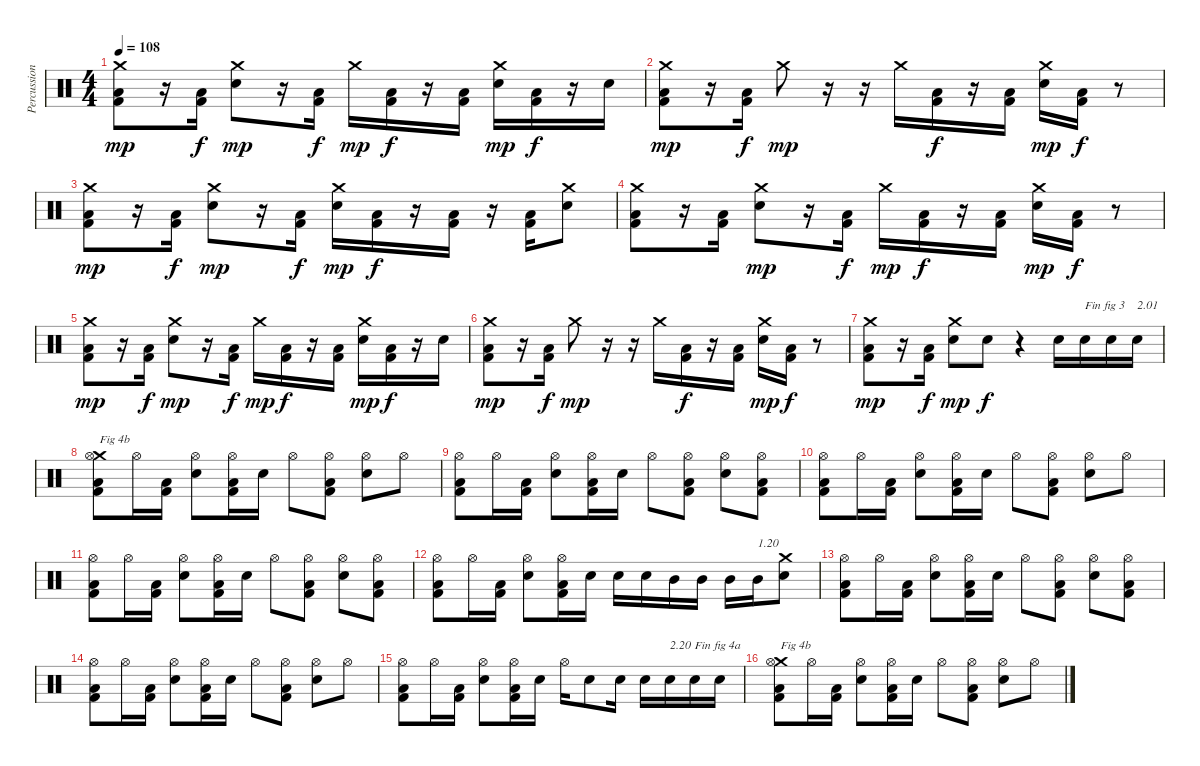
\track ("Percussions" "Percussion") {instrument percussion}
\staff {score}
\articulation defaults
\ts (4 4)
\tempo 108
\clef neutral
\ks c
("Kick (hit) 2" "Low Floor Tom (hit)" "Crash medium (hit)").8{dy mp} r.16 ("Kick (hit) 2" "Low Floor Tom (hit)").16{dy f} ("Snare (hit) 2" "Crash medium (hit)").8{dy mp} r.16 ("Kick (hit) 2" "Low Floor Tom (hit)").16{dy f} "Crash medium (hit)".16{dy mp} ("Kick (hit) 2" "Low Floor Tom (hit)").16{dy f} r.16 ("Kick (hit) 2" "Low Floor Tom (hit)").16 ("Snare (hit) 2" "Crash medium (hit)").16{dy mp} ("Kick (hit) 2" "Low Floor Tom (hit)").16{dy f} r.16 "Snare (hit) 2".16 |
("Kick (hit) 2" "Low Floor Tom (hit)" "Crash medium (hit)").8{dy mp} r.16 ("Kick (hit) 2" "Low Floor Tom (hit)").16{dy f} "Crash medium (hit)".8{dy mp} r.16 r.16 "Crash medium (hit)".16 ("Kick (hit) 2" "Low Floor Tom (hit)").16{dy f} r.16 ("Kick (hit) 2" "Low Floor Tom (hit)").16 ("Snare (hit) 2" "Crash medium (hit)").16{dy mp} ("Kick (hit) 2" "Low Floor Tom (hit)").16{dy f} r.8 |
("Kick (hit) 2" "Low Floor Tom (hit)" "Crash medium (hit)").8{dy mp} r.16 ("Kick (hit) 2" "Low Floor Tom (hit)").16{dy f} ("Snare (hit) 2" "Crash medium (hit)").8{dy mp} r.16 ("Kick (hit) 2" "Low Floor Tom (hit)").16{dy f} ("Snare (hit) 2" "Crash medium (hit)").16{dy mp} ("Kick (hit) 2" "Low Floor Tom (hit)").16{dy f} r.16 ("Kick (hit) 2" "Low Floor Tom (hit)").16 r.16 ("Kick (hit) 2" "Low Floor Tom (hit)").16 ("Snare (hit) 2" "Crash medium (hit)").8 |
("Kick (hit) 2" "Low Floor Tom (hit)" "Crash medium (hit)").8 r.16 ("Kick (hit) 2" "Low Floor Tom (hit)").16 ("Snare (hit) 2" "Crash medium (hit)").8{dy mp} r.16 ("Kick (hit) 2" "Low Floor Tom (hit)").16{dy f} "Crash medium (hit)".16{dy mp} ("Kick (hit) 2" "Low Floor Tom (hit)").16{dy f} r.16 ("Kick (hit) 2" "Low Floor Tom (hit)").16 ("Snare (hit) 2" "Crash medium (hit)").16{dy mp} ("Kick (hit) 2" "Low Floor Tom (hit)").16{dy f} r.8 |
("Kick (hit) 2" "Low Floor Tom (hit)" "Crash medium (hit)").8{dy mp} r.16 ("Kick (hit) 2" "Low Floor Tom (hit)").16{dy f} ("Snare (hit) 2" "Crash medium (hit)").8{dy mp} r.16 ("Kick (hit) 2" "Low Floor Tom (hit)").16{dy f} "Crash medium (hit)".16{dy mp} ("Kick (hit) 2" "Low Floor Tom (hit)").16{dy f} r.16 ("Kick (hit) 2" "Low Floor Tom (hit)").16 ("Snare (hit) 2" "Crash medium (hit)").16{dy mp} ("Kick (hit) 2" "Low Floor Tom (hit)").16{dy f} r.16 "Snare (hit) 2".16 |
("Kick (hit) 2" "Low Floor Tom (hit)" "Crash medium (hit)").8{dy mp} r.16 ("Kick (hit) 2" "Low Floor Tom (hit)").16{dy f} "Crash medium (hit)".8{dy mp} r.16 r.16 "Crash medium (hit)".16 ("Kick (hit) 2" "Low Floor Tom (hit)").16{dy f} r.16 ("Kick (hit) 2" "Low Floor Tom (hit)").16 ("Snare (hit) 2" "Crash medium (hit)").16{dy mp} ("Kick (hit) 2" "Low Floor Tom (hit)").16{dy f} r.8 |
("Kick (hit) 2" "Low Floor Tom (hit)" "Crash medium (hit)").8{dy mp} r.16 ("Kick (hit) 2" "Low Floor Tom (hit)").16{dy f} ("Snare (hit) 2" "Crash medium (hit)").8{dy mp} "Snare (hit) 2".8{dy f} r.4 "Snare (hit) 2".16 "Snare (hit) 2".16{txt "Fin fig 3"} "Snare (hit) 2".16 "Snare (hit) 2".16{txt "2.01"} |
("Kick (hit) 2" "Low Floor Tom (hit)" "Crash medium (hit)" "Hi-Hat (open)").8{txt "Fig 4b"} "Hi-Hat (open)".16 ("Kick (hit) 2" "Low Floor Tom (hit)").16 ("Snare (hit) 2" "Hi-Hat (open)").8 ("Kick (hit) 2" "Low Floor Tom (hit)" "Hi-Hat (open)").16 "Snare (hit) 2".16 "Hi-Hat (open)".8 ("Kick (hit) 2" "Low Floor Tom (hit)" "Hi-Hat (open)").8 ("Snare (hit) 2" "Hi-Hat (open)").8 "Hi-Hat (open)".8 |
("Kick (hit) 2" "Low Floor Tom (hit)" "Hi-Hat (open)").8 "Hi-Hat (open)".16 ("Kick (hit) 2" "Low Floor Tom (hit)").16 ("Snare (hit) 2" "Hi-Hat (open)").8 ("Kick (hit) 2" "Low Floor Tom (hit)" "Hi-Hat (open)").16 "Snare (hit) 2".16 "Hi-Hat (open)".8 ("Kick (hit) 2" "Low Floor Tom (hit)" "Hi-Hat (open)").8 ("Snare (hit) 2" "Hi-Hat (open)").8 ("Kick (hit) 2" "Low Floor Tom (hit)" "Hi-Hat (open)").8 |
("Kick (hit) 2" "Low Floor Tom (hit)" "Hi-Hat (open)").8 "Hi-Hat (open)".16 ("Kick (hit) 2" "Low Floor Tom (hit)").16 ("Snare (hit) 2" "Hi-Hat (open)").8 ("Kick (hit) 2" "Low Floor Tom (hit)" "Hi-Hat (open)").16 "Snare (hit) 2".16 "Hi-Hat (open)".8 ("Kick (hit) 2" "Low Floor Tom (hit)" "Hi-Hat (open)").8 ("Snare (hit) 2" "Hi-Hat (open)").8 "Hi-Hat (open)".8 |
("Kick (hit) 2" "Low Floor Tom (hit)" "Hi-Hat (open)").8 "Hi-Hat (open)".16 ("Kick (hit) 2" "Low Floor Tom (hit)").16 ("Snare (hit) 2" "Hi-Hat (open)").8 ("Kick (hit) 2" "Low Floor Tom (hit)" "Hi-Hat (open)").16 "Snare (hit) 2".16 "Hi-Hat (open)".8 ("Kick (hit) 2" "Low Floor Tom (hit)" "Hi-Hat (open)").8 ("Snare (hit) 2" "Hi-Hat (open)").8 ("Kick (hit) 2" "Low Floor Tom (hit)" "Hi-Hat (open)").8 |
("Kick (hit) 2" "Low Floor Tom (hit)" "Hi-Hat (open)").8 "Hi-Hat (open)".16 ("Kick (hit) 2" "Low Floor Tom (hit)").16 ("Snare (hit) 2" "Hi-Hat (open)").8 ("Kick (hit) 2" "Low Floor Tom (hit)" "Hi-Hat (open)").16 "Snare (hit) 2".16 "Snare (hit) 2".16 "Snare (hit) 2".16 "Mid Tom (hit)".16 "Mid Tom (hit)".16 "Mid Tom (hit)".16 "Mid Tom (hit)".16{txt "1.20"} ("Snare (hit) 2" "Crash medium (hit)").8 |
("Kick (hit) 2" "Low Floor Tom (hit)" "Hi-Hat (open)").8 "Hi-Hat (open)".16 ("Kick (hit) 2" "Low Floor Tom (hit)").16 ("Snare (hit) 2" "Hi-Hat (open)").8 ("Kick (hit) 2" "Low Floor Tom (hit)" "Hi-Hat (open)").16 "Snare (hit) 2".16 "Hi-Hat (open)".8 ("Kick (hit) 2" "Low Floor Tom (hit)" "Hi-Hat (open)").8 ("Snare (hit) 2" "Hi-Hat (open)").8 ("Kick (hit) 2" "Low Floor Tom (hit)" "Hi-Hat (open)").8 |
("Kick (hit) 2" "Low Floor Tom (hit)" "Hi-Hat (open)").8 "Hi-Hat (open)".16 ("Kick (hit) 2" "Low Floor Tom (hit)").16 ("Snare (hit) 2" "Hi-Hat (open)").8 ("Kick (hit) 2" "Low Floor Tom (hit)" "Hi-Hat (open)").16 "Snare (hit) 2".16 "Hi-Hat (open)".8 ("Kick (hit) 2" "Low Floor Tom (hit)" "Hi-Hat (open)").8 ("Snare (hit) 2" "Hi-Hat (open)").8 "Hi-Hat (open)".8 |
("Kick (hit) 2" "Low Floor Tom (hit)" "Hi-Hat (open)").8 "Hi-Hat (open)".16 ("Kick (hit) 2" "Low Floor Tom (hit)").16 ("Snare (hit) 2" "Hi-Hat (open)").8 ("Kick (hit) 2" "Low Floor Tom (hit)" "Hi-Hat (open)").16 "Snare (hit) 2".16 "Hi-Hat (open)".16 "Snare (hit) 2".8 "Snare (hit) 2".16 "Snare (hit) 2".16 "Snare (hit) 2".16{txt "2.20"} "Snare (hit) 2".16{txt "Fin fig 4a"} "Snare (hit) 2".16 |
("Kick (hit) 2" "Low Floor Tom (hit)" "Crash medium (hit)" "Hi-Hat (open)").8{txt "Fig 4b"} "Hi-Hat (open)".16 ("Kick (hit) 2" "Low Floor Tom (hit)").16 ("Snare (hit) 2" "Hi-Hat (open)").8 ("Kick (hit) 2" "Low Floor Tom (hit)" "Hi-Hat (open)").16 "Snare (hit) 2".16 "Hi-Hat (open)".8 ("Kick (hit) 2" "Low Floor Tom (hit)" "Hi-Hat (open)").8 ("Snare (hit) 2" "Hi-Hat (open)").8 "Hi-Hat (open)".8
